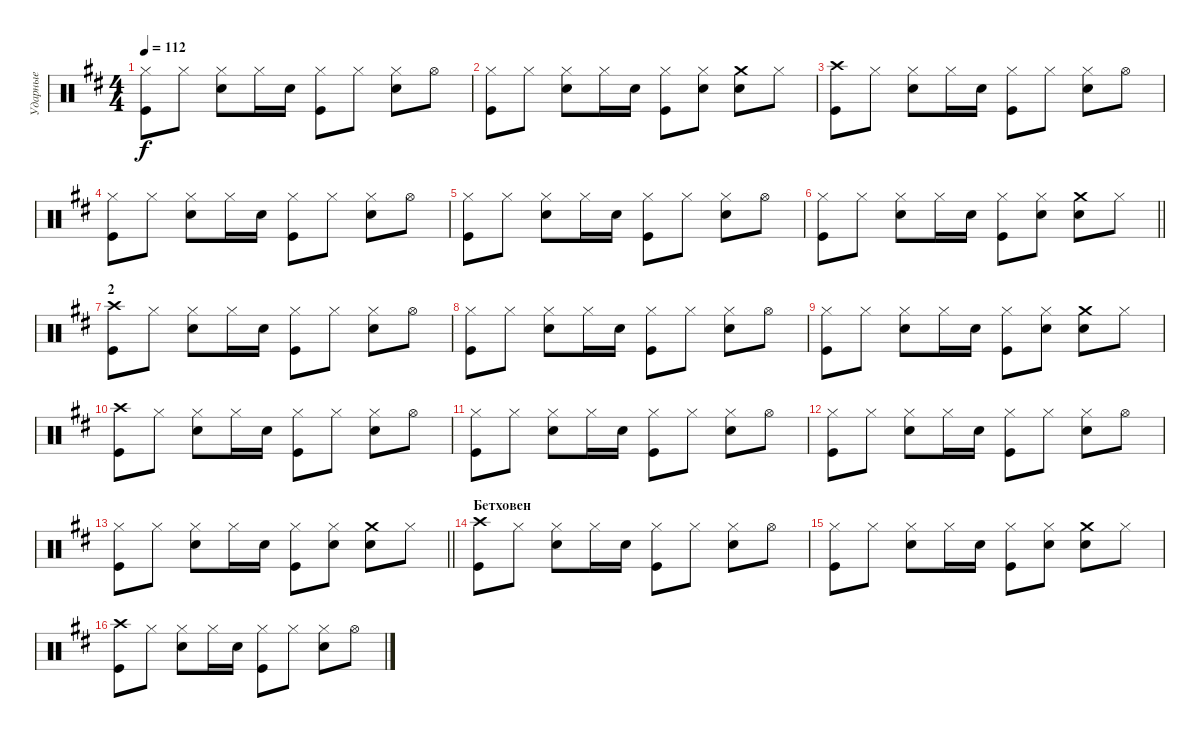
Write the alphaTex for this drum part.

\track ("Ударные" "Ударные") {instrument percussion}
\staff {score}
\articulation defaults
\ts (4 4)
\tempo 112
\clef neutral
\ks bminor
("Hi-Hat (closed)" "Kick (hit)").8{dy f} "Hi-Hat (closed)".8 ("Hi-Hat (closed)" "Electric Snare (hit)").8 "Hi-Hat (closed)".16 "Electric Snare (hit)".16 ("Hi-Hat (closed)" "Kick (hit)").8 "Hi-Hat (closed)".8 ("Hi-Hat (closed)" "Electric Snare (hit)").8 "Hi-Hat (open)".8 |
("Hi-Hat (closed)" "Kick (hit)").8 "Hi-Hat (closed)".8 ("Hi-Hat (closed)" "Electric Snare (hit)").8 "Hi-Hat (closed)".16 "Electric Snare (hit)".16 ("Hi-Hat (closed)" "Kick (hit)").8 ("Hi-Hat (closed)" "Electric Snare (hit)").8 ("Crash medium (hit)" "Electric Snare (hit)").8 "Hi-Hat (closed)".8 |
("Crash high (hit)" "Kick (hit)").8 "Hi-Hat (closed)".8 ("Hi-Hat (closed)" "Electric Snare (hit)").8 "Hi-Hat (closed)".16 "Electric Snare (hit)".16 ("Hi-Hat (closed)" "Kick (hit)").8 "Hi-Hat (closed)".8 ("Hi-Hat (closed)" "Electric Snare (hit)").8 "Hi-Hat (open)".8 |
("Hi-Hat (closed)" "Kick (hit)").8 "Hi-Hat (closed)".8 ("Hi-Hat (closed)" "Electric Snare (hit)").8 "Hi-Hat (closed)".16 "Electric Snare (hit)".16 ("Hi-Hat (closed)" "Kick (hit)").8 "Hi-Hat (closed)".8 ("Hi-Hat (closed)" "Electric Snare (hit)").8 "Hi-Hat (open)".8 |
("Hi-Hat (closed)" "Kick (hit)").8 "Hi-Hat (closed)".8 ("Hi-Hat (closed)" "Electric Snare (hit)").8 "Hi-Hat (closed)".16 "Electric Snare (hit)".16 ("Hi-Hat (closed)" "Kick (hit)").8 "Hi-Hat (closed)".8 ("Hi-Hat (closed)" "Electric Snare (hit)").8 "Hi-Hat (open)".8 |
\barLineRight lightlight
("Hi-Hat (closed)" "Kick (hit)").8 "Hi-Hat (closed)".8 ("Hi-Hat (closed)" "Electric Snare (hit)").8 "Hi-Hat (closed)".16 "Electric Snare (hit)".16 ("Hi-Hat (closed)" "Kick (hit)").8 ("Hi-Hat (closed)" "Electric Snare (hit)").8 ("Crash medium (hit)" "Electric Snare (hit)").8 "Hi-Hat (closed)".8 |
\section ("" "2")
("Crash high (hit)" "Kick (hit)").8 "Hi-Hat (closed)".8 ("Hi-Hat (closed)" "Electric Snare (hit)").8 "Hi-Hat (closed)".16 "Electric Snare (hit)".16 ("Hi-Hat (closed)" "Kick (hit)").8 "Hi-Hat (closed)".8 ("Hi-Hat (closed)" "Electric Snare (hit)").8 "Hi-Hat (open)".8 |
("Hi-Hat (closed)" "Kick (hit)").8 "Hi-Hat (closed)".8 ("Hi-Hat (closed)" "Electric Snare (hit)").8 "Hi-Hat (closed)".16 "Electric Snare (hit)".16 ("Hi-Hat (closed)" "Kick (hit)").8 "Hi-Hat (closed)".8 ("Hi-Hat (closed)" "Electric Snare (hit)").8 "Hi-Hat (open)".8 |
("Hi-Hat (closed)" "Kick (hit)").8 "Hi-Hat (closed)".8 ("Hi-Hat (closed)" "Electric Snare (hit)").8 "Hi-Hat (closed)".16 "Electric Snare (hit)".16 ("Hi-Hat (closed)" "Kick (hit)").8 ("Hi-Hat (closed)" "Electric Snare (hit)").8 ("Crash medium (hit)" "Electric Snare (hit)").8 "Hi-Hat (closed)".8 |
("Crash high (hit)" "Kick (hit)").8 "Hi-Hat (closed)".8 ("Hi-Hat (closed)" "Electric Snare (hit)").8 "Hi-Hat (closed)".16 "Electric Snare (hit)".16 ("Hi-Hat (closed)" "Kick (hit)").8 "Hi-Hat (closed)".8 ("Hi-Hat (closed)" "Electric Snare (hit)").8 "Hi-Hat (open)".8 |
("Hi-Hat (closed)" "Kick (hit)").8 "Hi-Hat (closed)".8 ("Hi-Hat (closed)" "Electric Snare (hit)").8 "Hi-Hat (closed)".16 "Electric Snare (hit)".16 ("Hi-Hat (closed)" "Kick (hit)").8 "Hi-Hat (closed)".8 ("Hi-Hat (closed)" "Electric Snare (hit)").8 "Hi-Hat (open)".8 |
("Hi-Hat (closed)" "Kick (hit)").8 "Hi-Hat (closed)".8 ("Hi-Hat (closed)" "Electric Snare (hit)").8 "Hi-Hat (closed)".16 "Electric Snare (hit)".16 ("Hi-Hat (closed)" "Kick (hit)").8 "Hi-Hat (closed)".8 ("Hi-Hat (closed)" "Electric Snare (hit)").8 "Hi-Hat (open)".8 |
\barLineRight lightlight
("Hi-Hat (closed)" "Kick (hit)").8 "Hi-Hat (closed)".8 ("Hi-Hat (closed)" "Electric Snare (hit)").8 "Hi-Hat (closed)".16 "Electric Snare (hit)".16 ("Hi-Hat (closed)" "Kick (hit)").8 ("Hi-Hat (closed)" "Electric Snare (hit)").8 ("Crash medium (hit)" "Electric Snare (hit)").8 "Hi-Hat (closed)".8 |
\section ("" "Бетховен")
("Crash high (hit)" "Kick (hit)").8 "Hi-Hat (closed)".8 ("Hi-Hat (closed)" "Electric Snare (hit)").8 "Hi-Hat (closed)".16 "Electric Snare (hit)".16 ("Hi-Hat (closed)" "Kick (hit)").8 "Hi-Hat (closed)".8 ("Hi-Hat (closed)" "Electric Snare (hit)").8 "Hi-Hat (open)".8 |
("Hi-Hat (closed)" "Kick (hit)").8 "Hi-Hat (closed)".8 ("Hi-Hat (closed)" "Electric Snare (hit)").8 "Hi-Hat (closed)".16 "Electric Snare (hit)".16 ("Hi-Hat (closed)" "Kick (hit)").8 ("Hi-Hat (closed)" "Electric Snare (hit)").8 ("Crash medium (hit)" "Electric Snare (hit)").8 "Hi-Hat (closed)".8 |
("Crash high (hit)" "Kick (hit)").8 "Hi-Hat (closed)".8 ("Hi-Hat (closed)" "Electric Snare (hit)").8 "Hi-Hat (closed)".16 "Electric Snare (hit)".16 ("Hi-Hat (closed)" "Kick (hit)").8 "Hi-Hat (closed)".8 ("Hi-Hat (closed)" "Electric Snare (hit)").8 "Hi-Hat (open)".8
